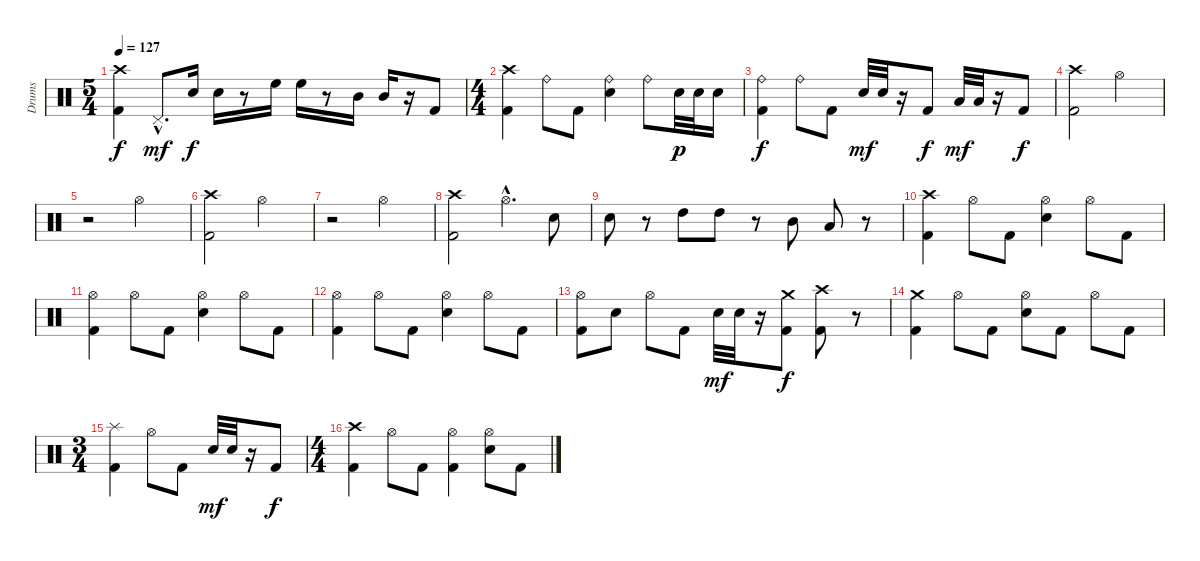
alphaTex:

\track ("Drums" "Drums") {instrument percussion}
\staff {score}
\articulation defaults
\ts (5 4)
\tempo 127
\clef neutral
\ks c
("Crash high (hit)" "Kick (hit) 2").4{dy f} "Pedal Hi-Hat (hit)"{hac}.8{d dy mf} "Electric Snare (hit)".16{dy f} "Electric Snare (hit)".16 r.8 "High Floor Tom (hit)".16 "High Floor Tom (hit)".16 r.8 "Mid Tom (hit)".16 "Mid Tom (hit)".16 r.16 "Kick (hit) 2".8 |
\ts (4 4)
("Crash high (hit)" "Kick (hit) 2").4 "Ride (bell)".8 "Kick (hit) 2".8 ("Ride (bell)" "Electric Snare (hit)").4 "Ride (bell)".8 "Electric Snare (hit)".32{dy p} "Electric Snare (hit)".32 "Electric Snare (hit)".16 |
("Ride (bell)" "Kick (hit) 2").4{dy f} "Ride (bell)".8 "Kick (hit) 2".8 "Electric Snare (hit)".32{dy mf} "Electric Snare (hit)".32 r.16 "Kick (hit) 2".8{dy f} "Low Tom (hit)".32{dy mf} "Low Tom (hit)".32 r.16 "Kick (hit) 2".8{dy f} |
("Kick (hit) 2" "Crash high (hit)").2 "Hi-Hat (open)".2 |
r.2 "Hi-Hat (open)".2 |
("Crash high (hit)" "Kick (hit) 2").2 "Hi-Hat (open)".2 |
r.2 "Hi-Hat (open)".2 |
("Crash high (hit)" "Kick (hit) 2").2 "Hi-Hat (open)"{hac}.4{d} "Electric Snare (hit)".8 |
"Electric Snare (hit)".8 r.8 "High Tom (hit)".8 "High Tom (hit)".8 r.8 "Mid Tom (hit)".8 "Low Tom (hit)".8 r.8 |
("Kick (hit) 2" "Crash high (hit)").4 "Hi-Hat (open)".8 "Kick (hit) 2".8 ("Electric Snare (hit)" "Hi-Hat (open)").4 "Hi-Hat (open)".8 "Kick (hit) 2".8 |
("Hi-Hat (open)" "Kick (hit) 2").4 "Hi-Hat (open)".8 "Kick (hit) 2".8 ("Hi-Hat (open)" "Electric Snare (hit)").4 "Hi-Hat (open)".8 "Kick (hit) 2".8 |
("Kick (hit) 2" "Hi-Hat (open)").4 "Hi-Hat (open)".8 "Kick (hit) 2".8 ("Hi-Hat (open)" "Electric Snare (hit)").4 "Hi-Hat (open)".8 "Kick (hit) 2".8 |
("Hi-Hat (open)" "Kick (hit) 2").8 "Electric Snare (hit)".8 "Hi-Hat (open)".8 "Kick (hit) 2".8 "Electric Snare (hit)".32{dy mf} "Electric Snare (hit)".32 r.16 ("Kick (hit) 2" "Crash medium (hit)").8{dy f} ("Crash high (hit)" "Kick (hit) 2").8 r.8 |
("Kick (hit) 2" "Crash medium (hit)").4 "Hi-Hat (open)".8 "Kick (hit) 2".8 ("Electric Snare (hit)" "Hi-Hat (open)").8 "Kick (hit) 2".8 "Hi-Hat (open)".8 "Kick (hit) 2".8 |
\ts (3 4)
("Kick (hit) 2" "Splash (hit)").4 "Hi-Hat (open)".8 "Kick (hit) 2".8 "Electric Snare (hit)".32{dy mf} "Electric Snare (hit)".32 r.16 "Kick (hit) 2".8{dy f} |
\ts (4 4)
("Kick (hit) 2" "Crash high (hit)").4 "Hi-Hat (open)".8 "Kick (hit) 2".8 ("Hi-Hat (open)" "Kick (hit) 2").4 ("Hi-Hat (open)" "Electric Snare (hit)").8 "Kick (hit) 2".8
